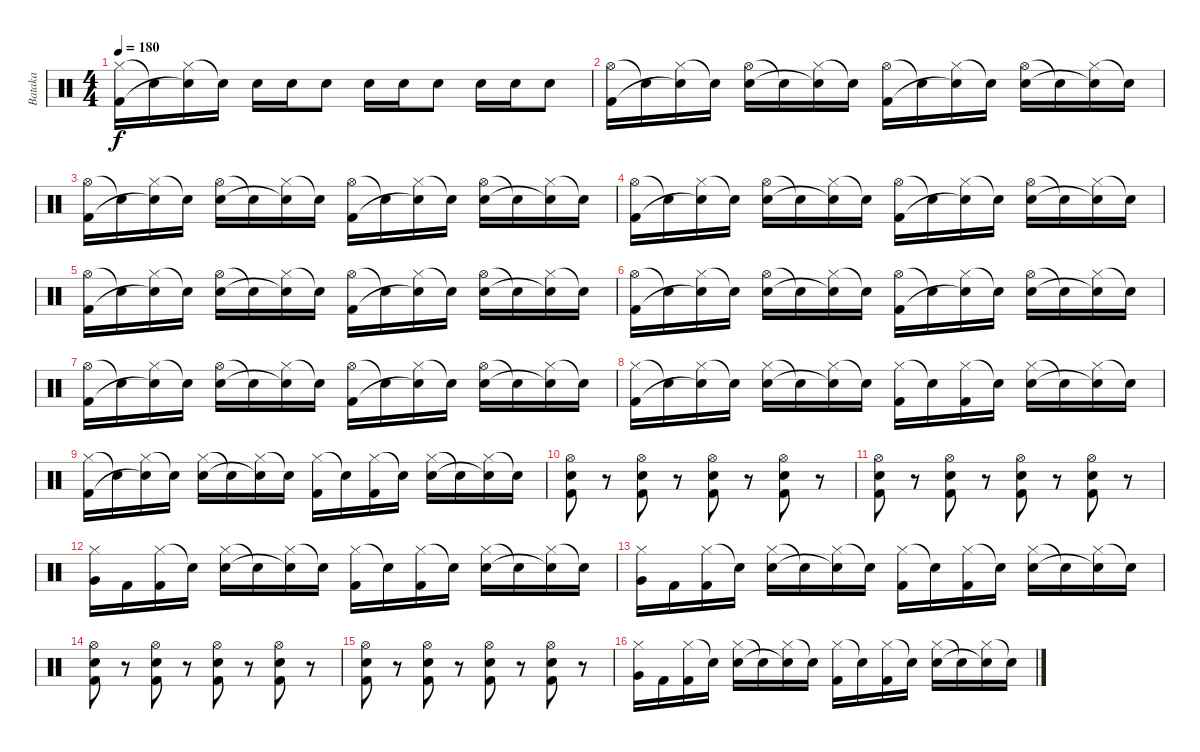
\track ("Bataka" "Bataka") {instrument percussion}
\staff {score}
\articulation defaults
\ts (4 4)
\tempo 180
\clef neutral
\ks c
("Hi-Hat (closed)" "Kick (hit) 2").16{dy f} "Snare (hit)"{t}.16 ("Hi-Hat (closed)" "Snare (hit)"{t}).16 "Snare (hit)"{t}.16 "Electric Snare (hit)".16 "Electric Snare (hit)".16 "Electric Snare (hit)".8 "Electric Snare (hit)".16 "Electric Snare (hit)".16 "Electric Snare (hit)".8 "Electric Snare (hit)".16 "Electric Snare (hit)".16 "Electric Snare (hit)".8 |
("Hi-Hat (open)" "Kick (hit) 2").16 "Snare (hit)"{t}.16 ("Hi-Hat (closed)" "Snare (hit)"{t}).16 "Snare (hit)"{t}.16 ("Hi-Hat (open)" "Electric Snare (hit)").16 "Snare (hit)"{t}.16 ("Hi-Hat (closed)" "Snare (hit)"{t}).16 "Snare (hit)"{t}.16 ("Hi-Hat (open)" "Kick (hit) 2").16 "Snare (hit)"{t}.16 ("Hi-Hat (closed)" "Snare (hit)"{t}).16 "Snare (hit)"{t}.16 ("Hi-Hat (open)" "Electric Snare (hit)").16 "Snare (hit)"{t}.16 ("Hi-Hat (closed)" "Snare (hit)"{t}).16 "Snare (hit)"{t}.16 |
("Hi-Hat (open)" "Kick (hit) 2").16 "Snare (hit)"{t}.16 ("Hi-Hat (closed)" "Snare (hit)"{t}).16 "Snare (hit)"{t}.16 ("Hi-Hat (open)" "Electric Snare (hit)").16 "Snare (hit)"{t}.16 ("Hi-Hat (closed)" "Snare (hit)"{t}).16 "Snare (hit)"{t}.16 ("Hi-Hat (open)" "Kick (hit) 2").16 "Snare (hit)"{t}.16 ("Hi-Hat (closed)" "Snare (hit)"{t}).16 "Snare (hit)"{t}.16 ("Hi-Hat (open)" "Electric Snare (hit)").16 "Snare (hit)"{t}.16 ("Hi-Hat (closed)" "Snare (hit)"{t}).16 "Snare (hit)"{t}.16 |
("Hi-Hat (open)" "Kick (hit) 2").16 "Snare (hit)"{t}.16 ("Hi-Hat (closed)" "Snare (hit)"{t}).16 "Snare (hit)"{t}.16 ("Hi-Hat (open)" "Electric Snare (hit)").16 "Snare (hit)"{t}.16 ("Hi-Hat (closed)" "Snare (hit)"{t}).16 "Snare (hit)"{t}.16 ("Hi-Hat (open)" "Kick (hit) 2").16 "Snare (hit)"{t}.16 ("Hi-Hat (closed)" "Snare (hit)"{t}).16 "Snare (hit)"{t}.16 ("Hi-Hat (open)" "Electric Snare (hit)").16 "Snare (hit)"{t}.16 ("Hi-Hat (closed)" "Snare (hit)"{t}).16 "Snare (hit)"{t}.16 |
("Hi-Hat (open)" "Kick (hit) 2").16 "Snare (hit)"{t}.16 ("Hi-Hat (closed)" "Snare (hit)"{t}).16 "Snare (hit)"{t}.16 ("Hi-Hat (open)" "Electric Snare (hit)").16 "Snare (hit)"{t}.16 ("Hi-Hat (closed)" "Snare (hit)"{t}).16 "Snare (hit)"{t}.16 ("Hi-Hat (open)" "Kick (hit) 2").16 "Snare (hit)"{t}.16 ("Hi-Hat (closed)" "Snare (hit)"{t}).16 "Snare (hit)"{t}.16 ("Hi-Hat (open)" "Electric Snare (hit)").16 "Snare (hit)"{t}.16 ("Hi-Hat (closed)" "Snare (hit)"{t}).16 "Snare (hit)"{t}.16 |
("Hi-Hat (open)" "Kick (hit) 2").16 "Snare (hit)"{t}.16 ("Hi-Hat (closed)" "Snare (hit)"{t}).16 "Snare (hit)"{t}.16 ("Hi-Hat (open)" "Electric Snare (hit)").16 "Snare (hit)"{t}.16 ("Hi-Hat (closed)" "Snare (hit)"{t}).16 "Snare (hit)"{t}.16 ("Hi-Hat (open)" "Kick (hit) 2").16 "Snare (hit)"{t}.16 ("Hi-Hat (closed)" "Snare (hit)"{t}).16 "Snare (hit)"{t}.16 ("Hi-Hat (open)" "Electric Snare (hit)").16 "Snare (hit)"{t}.16 ("Hi-Hat (closed)" "Snare (hit)"{t}).16 "Snare (hit)"{t}.16 |
("Hi-Hat (open)" "Kick (hit) 2").16 "Snare (hit)"{t}.16 ("Hi-Hat (closed)" "Snare (hit)"{t}).16 "Snare (hit)"{t}.16 ("Hi-Hat (open)" "Electric Snare (hit)").16 "Snare (hit)"{t}.16 ("Hi-Hat (closed)" "Snare (hit)"{t}).16 "Snare (hit)"{t}.16 ("Hi-Hat (open)" "Kick (hit) 2").16 "Snare (hit)"{t}.16 ("Hi-Hat (closed)" "Snare (hit)"{t}).16 "Snare (hit)"{t}.16 ("Hi-Hat (open)" "Electric Snare (hit)").16 "Snare (hit)"{t}.16 ("Hi-Hat (closed)" "Snare (hit)"{t}).16 "Snare (hit)"{t}.16 |
("Hi-Hat (closed)" "Kick (hit) 2").16 "Snare (hit)"{t}.16 ("Hi-Hat (closed)" "Snare (hit)"{t}).16 "Snare (hit)"{t}.16 ("Hi-Hat (closed)" "Electric Snare (hit)").16 "Snare (hit)"{t}.16 ("Hi-Hat (closed)" "Snare (hit)"{t}).16 "Snare (hit)"{t}.16 ("Hi-Hat (closed)" "Kick (hit) 2").16 "Snare (hit)"{t}.16 ("Hi-Hat (closed)" "Kick (hit) 2").16 "Snare (hit)"{t}.16 ("Hi-Hat (closed)" "Electric Snare (hit)").16 "Snare (hit)"{t}.16 ("Hi-Hat (closed)" "Snare (hit)"{t}).16 "Snare (hit)"{t}.16 |
("Hi-Hat (closed)" "Kick (hit) 2").16 "Snare (hit)"{t}.16 ("Hi-Hat (closed)" "Snare (hit)"{t}).16 "Snare (hit)"{t}.16 ("Hi-Hat (closed)" "Electric Snare (hit)").16 "Snare (hit)"{t}.16 ("Hi-Hat (closed)" "Snare (hit)"{t}).16 "Snare (hit)"{t}.16 ("Hi-Hat (closed)" "Kick (hit) 2").16 "Snare (hit)"{t}.16 ("Hi-Hat (closed)" "Kick (hit) 2").16 "Snare (hit)"{t}.16 ("Hi-Hat (closed)" "Electric Snare (hit)").16 "Snare (hit)"{t}.16 ("Hi-Hat (closed)" "Snare (hit)"{t}).16 "Snare (hit)"{t}.16 |
("Hi-Hat (open)" "Electric Snare (hit)" "Kick (hit) 2").8 r.8 ("Hi-Hat (open)" "Electric Snare (hit)" "Kick (hit) 2").8 r.8 ("Hi-Hat (open)" "Electric Snare (hit)" "Kick (hit) 2").8 r.8 ("Hi-Hat (open)" "Electric Snare (hit)" "Kick (hit) 2").8 r.8 |
("Hi-Hat (open)" "Electric Snare (hit)" "Kick (hit) 2").8 r.8 ("Hi-Hat (open)" "Electric Snare (hit)" "Kick (hit) 2").8 r.8 ("Hi-Hat (open)" "Electric Snare (hit)" "Kick (hit) 2").8 r.8 ("Hi-Hat (open)" "Electric Snare (hit)" "Kick (hit) 2").8 r.8 |
("Hi-Hat (closed)" "Very Low Tom (hit)").16 "Kick (hit) 2".16 ("Hi-Hat (closed)" "Kick (hit) 2").16 "Snare (hit)"{t}.16 ("Hi-Hat (closed)" "Electric Snare (hit)").16 "Snare (hit)"{t}.16 ("Hi-Hat (closed)" "Electric Snare (hit)"{t}).16 "Snare (hit)"{t}.16 ("Hi-Hat (closed)" "Kick (hit) 2").16 "Snare (hit)"{t}.16 ("Hi-Hat (closed)" "Kick (hit) 2").16 "Snare (hit)"{t}.16 ("Hi-Hat (closed)" "Electric Snare (hit)").16 "Snare (hit)"{t}.16 ("Hi-Hat (closed)" "Snare (hit)"{t}).16 "Snare (hit)"{t}.16 |
("Hi-Hat (closed)" "Very Low Tom (hit)").16 "Kick (hit) 2".16 ("Hi-Hat (closed)" "Kick (hit) 2").16 "Snare (hit)"{t}.16 ("Hi-Hat (closed)" "Electric Snare (hit)").16 "Snare (hit)"{t}.16 ("Hi-Hat (closed)" "Electric Snare (hit)"{t}).16 "Snare (hit)"{t}.16 ("Hi-Hat (closed)" "Kick (hit) 2").16 "Snare (hit)"{t}.16 ("Hi-Hat (closed)" "Kick (hit) 2").16 "Snare (hit)"{t}.16 ("Hi-Hat (closed)" "Electric Snare (hit)").16 "Snare (hit)"{t}.16 ("Hi-Hat (closed)" "Snare (hit)"{t}).16 "Snare (hit)"{t}.16 |
("Hi-Hat (open)" "Electric Snare (hit)" "Kick (hit) 2").8 r.8 ("Hi-Hat (open)" "Electric Snare (hit)" "Kick (hit) 2").8 r.8 ("Hi-Hat (open)" "Electric Snare (hit)" "Kick (hit) 2").8 r.8 ("Hi-Hat (open)" "Electric Snare (hit)" "Kick (hit) 2").8 r.8 |
("Hi-Hat (open)" "Electric Snare (hit)" "Kick (hit) 2").8 r.8 ("Hi-Hat (open)" "Electric Snare (hit)" "Kick (hit) 2").8 r.8 ("Hi-Hat (open)" "Electric Snare (hit)" "Kick (hit) 2").8 r.8 ("Hi-Hat (open)" "Electric Snare (hit)" "Kick (hit) 2").8 r.8 |
("Hi-Hat (closed)" "Very Low Tom (hit)").16 "Kick (hit) 2".16 ("Hi-Hat (closed)" "Kick (hit) 2").16 "Snare (hit)"{t}.16 ("Hi-Hat (closed)" "Electric Snare (hit)").16 "Snare (hit)"{t}.16 ("Hi-Hat (closed)" "Electric Snare (hit)"{t}).16 "Snare (hit)"{t}.16 ("Hi-Hat (closed)" "Kick (hit) 2").16 "Snare (hit)"{t}.16 ("Hi-Hat (closed)" "Kick (hit) 2").16 "Snare (hit)"{t}.16 ("Hi-Hat (closed)" "Electric Snare (hit)").16 "Snare (hit)"{t}.16 ("Hi-Hat (closed)" "Snare (hit)"{t}).16 "Snare (hit)"{t}.16
